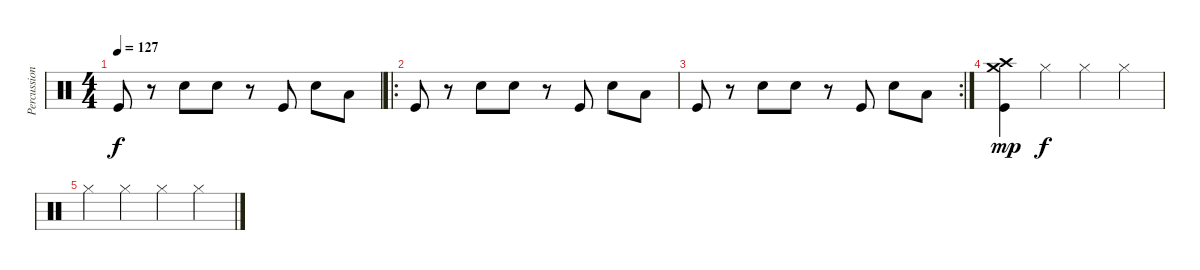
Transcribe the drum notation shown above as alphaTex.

\track ("Percussion" "Percussion") {instrument percussion}
\staff {score}
\articulation defaults
\ts (4 4)
\tempo 127
\clef neutral
\ks c "Kick (hit)".8{dy f}
r.8 "Snare (hit) 2".8 "Snare (hit) 2".8 r.8 "Kick (hit)".8 "Snare (hit) 2".8 "Low Floor Tom (hit)".8 |
\ro "Kick (hit)".8
r.8 "Snare (hit) 2".8 "Snare (hit) 2".8 r.8 "Kick (hit)".8 "Snare (hit) 2".8 "Low Floor Tom (hit)".8 |
\rc 2 "Kick (hit)".8
r.8 "Snare (hit) 2".8 "Snare (hit) 2".8 r.8 "Kick (hit)".8 "Snare (hit) 2".8 "Low Floor Tom (hit)".8 |
("Crash medium (hit)" "Crash high (hit)" "Kick (hit)").4{dy mp} "Hi-Hat (closed)".4{dy f} "Hi-Hat (closed)".4 "Hi-Hat (closed)".4 |
"Hi-Hat (closed)".4 "Hi-Hat (closed)".4 "Hi-Hat (closed)".4 "Hi-Hat (closed)".4
